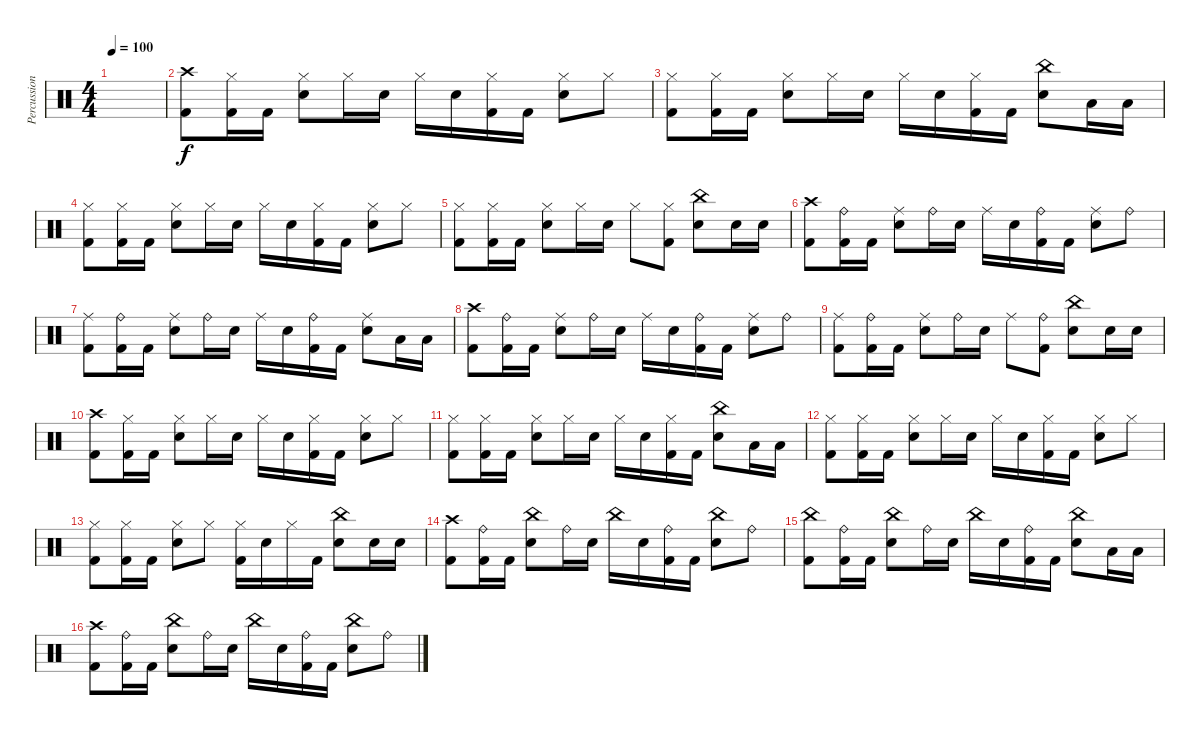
\track ("Percussion" "Percussion") {instrument percussion}
\staff {score}
\articulation defaults
\ts (4 4)
\tempo 100
\clef neutral
\ks c
|
("Crash high (hit)" "Kick (hit) 2").8 ("Hi-Hat (closed)" "Kick (hit) 2").16 "Kick (hit) 2".16 ("Hi-Hat (closed)" "Snare (hit) 2").8 "Hi-Hat (closed)".16 "Snare (hit) 2".16 "Hi-Hat (closed)".16 "Snare (hit) 2".16 ("Hi-Hat (closed)" "Kick (hit) 2").16 "Kick (hit) 2".16 ("Hi-Hat (closed)" "Snare (hit) 2").8 "Hi-Hat (closed)".8 |
("Hi-Hat (closed)" "Kick (hit) 2").8 ("Hi-Hat (closed)" "Kick (hit) 2").16 "Kick (hit) 2".16 ("Hi-Hat (closed)" "Snare (hit) 2").8 "Hi-Hat (closed)".16 "Snare (hit) 2".16 "Hi-Hat (closed)".16 "Snare (hit) 2".16 ("Hi-Hat (closed)" "Kick (hit) 2").16 "Kick (hit) 2".16 ("China (hit)" "Snare (hit) 2").8 "Low Floor Tom (hit)".16 "Low Floor Tom (hit)".16 |
("Hi-Hat (closed)" "Kick (hit) 2").8 ("Hi-Hat (closed)" "Kick (hit) 2").16 "Kick (hit) 2".16 ("Hi-Hat (closed)" "Snare (hit) 2").8 "Hi-Hat (closed)".16 "Snare (hit) 2".16 "Hi-Hat (closed)".16 "Snare (hit) 2".16 ("Hi-Hat (closed)" "Kick (hit) 2").16 "Kick (hit) 2".16 ("Hi-Hat (closed)" "Snare (hit) 2").8 "Hi-Hat (closed)".8 |
("Hi-Hat (closed)" "Kick (hit) 2").8 ("Hi-Hat (closed)" "Kick (hit) 2").16 "Kick (hit) 2".16 ("Hi-Hat (closed)" "Snare (hit) 2").8 "Hi-Hat (closed)".16 "Snare (hit) 2".16 "Hi-Hat (closed)".8 ("Hi-Hat (closed)" "Kick (hit) 2").8 ("China (hit)" "Snare (hit) 2").8 "Snare (hit) 2".16 "Snare (hit) 2".16 |
("Crash high (hit)" "Kick (hit) 2").8 ("Ride (bell)" "Kick (hit) 2").16 "Kick (hit) 2".16 ("Ride (middle)" "Snare (hit) 2").8 "Ride (bell)".16 "Snare (hit) 2".16 "Ride (middle)".16 "Snare (hit) 2".16 ("Ride (bell)" "Kick (hit) 2").16 "Kick (hit) 2".16 ("Ride (middle)" "Snare (hit) 2").8 "Ride (bell)".8 |
("Ride (middle)" "Kick (hit) 2").8 ("Ride (bell)" "Kick (hit) 2").16 "Kick (hit) 2".16 ("Ride (middle)" "Snare (hit) 2").8 "Ride (bell)".16 "Snare (hit) 2".16 "Ride (middle)".16 "Snare (hit) 2".16 ("Ride (bell)" "Kick (hit) 2").16 "Kick (hit) 2".16 ("Ride (middle)" "Snare (hit) 2").8 "Low Floor Tom (hit)".16 "Low Floor Tom (hit)".16 |
("Crash high (hit)" "Kick (hit) 2").8 ("Ride (bell)" "Kick (hit) 2").16 "Kick (hit) 2".16 ("Ride (middle)" "Snare (hit) 2").8 "Ride (bell)".16 "Snare (hit) 2".16 "Ride (middle)".16 "Snare (hit) 2".16 ("Ride (bell)" "Kick (hit) 2").16 "Kick (hit) 2".16 ("Ride (middle)" "Snare (hit) 2").8 "Ride (bell)".8 |
("Ride (middle)" "Kick (hit) 2").8 ("Ride (bell)" "Kick (hit) 2").16 "Kick (hit) 2".16 ("Ride (middle)" "Snare (hit) 2").8 "Ride (bell)".16 "Snare (hit) 2".16 "Ride (middle)".8 ("Ride (bell)" "Kick (hit) 2").8 ("China (hit)" "Snare (hit) 2").8 "Snare (hit) 2".16 "Snare (hit) 2".16 |
("Crash high (hit)" "Kick (hit) 2").8 ("Hi-Hat (closed)" "Kick (hit) 2").16 "Kick (hit) 2".16 ("Hi-Hat (closed)" "Snare (hit) 2").8 "Hi-Hat (closed)".16 "Snare (hit) 2".16 "Hi-Hat (closed)".16 "Snare (hit) 2".16 ("Hi-Hat (closed)" "Kick (hit) 2").16 "Kick (hit) 2".16 ("Hi-Hat (closed)" "Snare (hit) 2").8 "Hi-Hat (closed)".8 |
("Hi-Hat (closed)" "Kick (hit) 2").8 ("Hi-Hat (closed)" "Kick (hit) 2").16 "Kick (hit) 2".16 ("Hi-Hat (closed)" "Snare (hit) 2").8 "Hi-Hat (closed)".16 "Snare (hit) 2".16 "Hi-Hat (closed)".16 "Snare (hit) 2".16 ("Hi-Hat (closed)" "Kick (hit) 2").16 "Kick (hit) 2".16 ("China (hit)" "Snare (hit) 2").8 "Low Floor Tom (hit)".16 "Low Floor Tom (hit)".16 |
("Hi-Hat (closed)" "Kick (hit) 2").8 ("Hi-Hat (closed)" "Kick (hit) 2").16 "Kick (hit) 2".16 ("Hi-Hat (closed)" "Snare (hit) 2").8 "Hi-Hat (closed)".16 "Snare (hit) 2".16 "Hi-Hat (closed)".16 "Snare (hit) 2".16 ("Hi-Hat (closed)" "Kick (hit) 2").16 "Kick (hit) 2".16 ("Hi-Hat (closed)" "Snare (hit) 2").8 "Hi-Hat (closed)".8 |
("Hi-Hat (closed)" "Kick (hit) 2").8 ("Hi-Hat (closed)" "Kick (hit) 2").16 "Kick (hit) 2".16 ("Hi-Hat (closed)" "Snare (hit) 2").8 "Hi-Hat (closed)".8 ("Hi-Hat (closed)" "Kick (hit) 2").16 "Snare (hit) 2".16 "Hi-Hat (closed)".16 "Kick (hit) 2".16 ("China (hit)" "Snare (hit) 2").8 "Snare (hit) 2".16 "Snare (hit) 2".16 |
("Crash high (hit)" "Kick (hit) 2").8 ("Ride (bell)" "Kick (hit) 2").16 "Kick (hit) 2".16 ("China (hit)" "Snare (hit) 2").8 "Ride (bell)".16 "Snare (hit) 2".16 "China (hit)".16 "Snare (hit) 2".16 ("Ride (bell)" "Kick (hit) 2").16 "Kick (hit) 2".16 ("China (hit)" "Snare (hit) 2").8 "Ride (bell)".8 |
("China (hit)" "Kick (hit) 2").8 ("Ride (bell)" "Kick (hit) 2").16 "Kick (hit) 2".16 ("China (hit)" "Snare (hit) 2").8 "Ride (bell)".16 "Snare (hit) 2".16 "China (hit)".16 "Snare (hit) 2".16 ("Ride (bell)" "Kick (hit) 2").16 "Kick (hit) 2".16 ("China (hit)" "Snare (hit) 2").8 "Low Floor Tom (hit)".16 "Low Floor Tom (hit)".16 |
("Crash high (hit)" "Kick (hit) 2").8 ("Ride (bell)" "Kick (hit) 2").16 "Kick (hit) 2".16 ("China (hit)" "Snare (hit) 2").8 "Ride (bell)".16 "Snare (hit) 2".16 "China (hit)".16 "Snare (hit) 2".16 ("Ride (bell)" "Kick (hit) 2").16 "Kick (hit) 2".16 ("China (hit)" "Snare (hit) 2").8 "Ride (bell)".8
